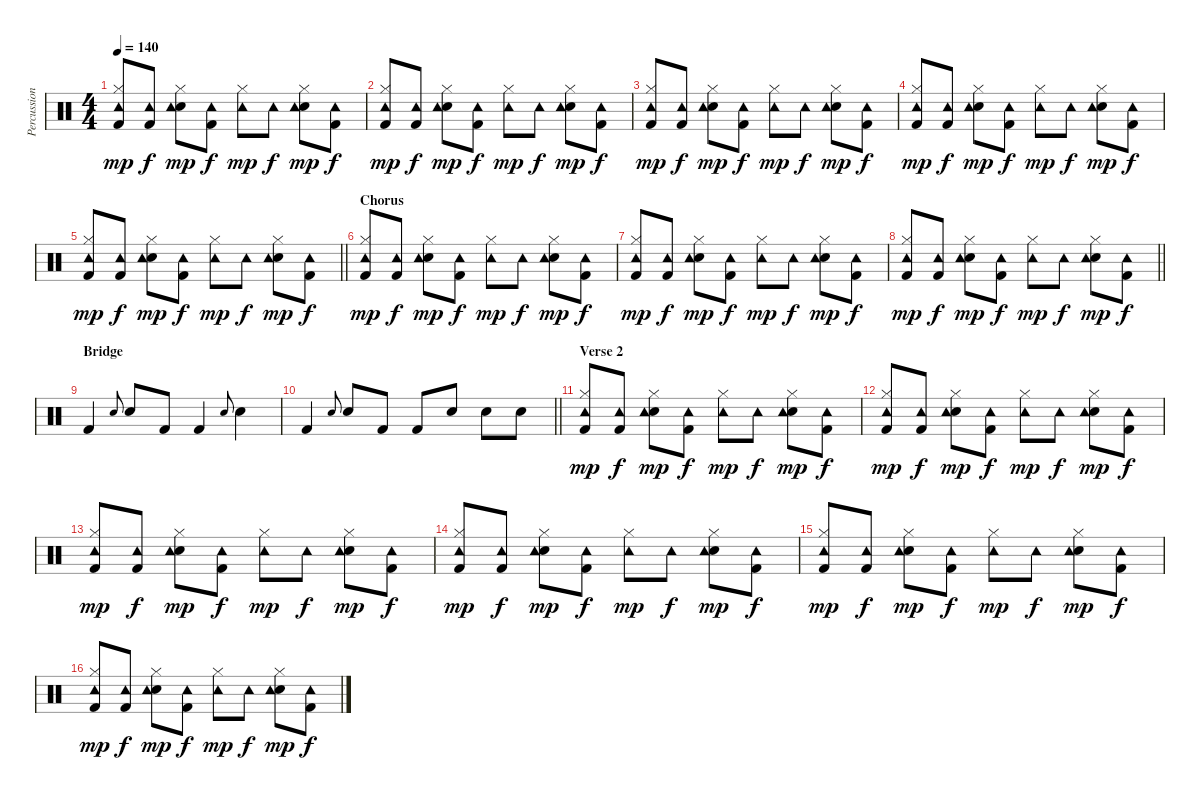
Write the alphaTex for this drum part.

\track ("Percussion" "Percussion") {instrument percussion}
\staff {score}
\articulation defaults
\ts (4 4)
\tempo 140
\clef neutral
\ks c
("Kick (hit) 2" "Hi-Hat (closed)" "Tambourine (hit)").8{dy mp} ("Kick (hit) 2" "Tambourine (hit)").8{dy f} ("Snare (hit) 2" "Hi-Hat (closed)" "Tambourine (hit)").8{dy mp} ("Kick (hit) 2" "Tambourine (hit)").8{dy f} ("Hi-Hat (closed)" "Tambourine (hit)").8{dy mp} "Tambourine (hit)".8{dy f} ("Snare (hit) 2" "Hi-Hat (closed)" "Tambourine (hit)").8{dy mp} ("Kick (hit) 2" "Tambourine (hit)").8{dy f} |
("Kick (hit) 2" "Hi-Hat (closed)" "Tambourine (hit)").8{dy mp} ("Kick (hit) 2" "Tambourine (hit)").8{dy f} ("Snare (hit) 2" "Hi-Hat (closed)" "Tambourine (hit)").8{dy mp} ("Kick (hit) 2" "Tambourine (hit)").8{dy f} ("Hi-Hat (closed)" "Tambourine (hit)").8{dy mp} "Tambourine (hit)".8{dy f} ("Snare (hit) 2" "Hi-Hat (closed)" "Tambourine (hit)").8{dy mp} ("Kick (hit) 2" "Tambourine (hit)").8{dy f} |
("Kick (hit) 2" "Hi-Hat (closed)" "Tambourine (hit)").8{dy mp} ("Kick (hit) 2" "Tambourine (hit)").8{dy f} ("Snare (hit) 2" "Hi-Hat (closed)" "Tambourine (hit)").8{dy mp} ("Kick (hit) 2" "Tambourine (hit)").8{dy f} ("Hi-Hat (closed)" "Tambourine (hit)").8{dy mp} "Tambourine (hit)".8{dy f} ("Snare (hit) 2" "Hi-Hat (closed)" "Tambourine (hit)").8{dy mp} ("Kick (hit) 2" "Tambourine (hit)").8{dy f} |
("Kick (hit) 2" "Hi-Hat (closed)" "Tambourine (hit)").8{dy mp} ("Kick (hit) 2" "Tambourine (hit)").8{dy f} ("Snare (hit) 2" "Hi-Hat (closed)" "Tambourine (hit)").8{dy mp} ("Kick (hit) 2" "Tambourine (hit)").8{dy f} ("Hi-Hat (closed)" "Tambourine (hit)").8{dy mp} "Tambourine (hit)".8{dy f} ("Snare (hit) 2" "Hi-Hat (closed)" "Tambourine (hit)").8{dy mp} ("Kick (hit) 2" "Tambourine (hit)").8{dy f} |
\barLineRight lightlight
("Kick (hit) 2" "Hi-Hat (closed)" "Tambourine (hit)").8{dy mp} ("Kick (hit) 2" "Tambourine (hit)").8{dy f} ("Snare (hit) 2" "Hi-Hat (closed)" "Tambourine (hit)").8{dy mp} ("Kick (hit) 2" "Tambourine (hit)").8{dy f} ("Hi-Hat (closed)" "Tambourine (hit)").8{dy mp} "Tambourine (hit)".8{dy f} ("Snare (hit) 2" "Hi-Hat (closed)" "Tambourine (hit)").8{dy mp} ("Kick (hit) 2" "Tambourine (hit)").8{dy f} |
\section ("" "Chorus")
("Kick (hit) 2" "Hi-Hat (closed)" "Tambourine (hit)").8{dy mp} ("Kick (hit) 2" "Tambourine (hit)").8{dy f} ("Snare (hit) 2" "Hi-Hat (closed)" "Tambourine (hit)").8{dy mp} ("Kick (hit) 2" "Tambourine (hit)").8{dy f} ("Hi-Hat (closed)" "Tambourine (hit)").8{dy mp} "Tambourine (hit)".8{dy f} ("Snare (hit) 2" "Hi-Hat (closed)" "Tambourine (hit)").8{dy mp} ("Kick (hit) 2" "Tambourine (hit)").8{dy f} |
("Kick (hit) 2" "Hi-Hat (closed)" "Tambourine (hit)").8{dy mp} ("Kick (hit) 2" "Tambourine (hit)").8{dy f} ("Snare (hit) 2" "Hi-Hat (closed)" "Tambourine (hit)").8{dy mp} ("Kick (hit) 2" "Tambourine (hit)").8{dy f} ("Hi-Hat (closed)" "Tambourine (hit)").8{dy mp} "Tambourine (hit)".8{dy f} ("Snare (hit) 2" "Hi-Hat (closed)" "Tambourine (hit)").8{dy mp} ("Kick (hit) 2" "Tambourine (hit)").8{dy f} |
\barLineRight lightlight
("Kick (hit) 2" "Hi-Hat (closed)" "Tambourine (hit)").8{dy mp} ("Kick (hit) 2" "Tambourine (hit)").8{dy f} ("Snare (hit) 2" "Hi-Hat (closed)" "Tambourine (hit)").8{dy mp} ("Kick (hit) 2" "Tambourine (hit)").8{dy f} ("Hi-Hat (closed)" "Tambourine (hit)").8{dy mp} "Tambourine (hit)".8{dy f} ("Snare (hit) 2" "Hi-Hat (closed)" "Tambourine (hit)").8{dy mp} ("Kick (hit) 2" "Tambourine (hit)").8{dy f} |
\section ("" "Bridge")
"Kick (hit) 2".4 "Snare (hit) 2".8{gr onbeat} "Snare (hit) 2".8 "Kick (hit) 2".8 "Kick (hit) 2".4 "Snare (hit) 2".8{gr onbeat} "Snare (hit) 2".4 |
\barLineRight lightlight "Kick (hit) 2".4 "Snare (hit) 2".8{gr onbeat} "Snare (hit) 2".8 "Kick (hit) 2".8 "Kick (hit) 2".8 "Snare (hit) 2".8 "Snare (hit) 2".8 "Snare (hit) 2".8
|
\section ("" "Verse 2")
("Kick (hit) 2" "Hi-Hat (closed)" "Tambourine (hit)").8{dy mp} ("Kick (hit) 2" "Tambourine (hit)").8{dy f} ("Snare (hit) 2" "Hi-Hat (closed)" "Tambourine (hit)").8{dy mp} ("Kick (hit) 2" "Tambourine (hit)").8{dy f} ("Hi-Hat (closed)" "Tambourine (hit)").8{dy mp} "Tambourine (hit)".8{dy f} ("Snare (hit) 2" "Hi-Hat (closed)" "Tambourine (hit)").8{dy mp} ("Kick (hit) 2" "Tambourine (hit)").8{dy f} |
("Kick (hit) 2" "Hi-Hat (closed)" "Tambourine (hit)").8{dy mp} ("Kick (hit) 2" "Tambourine (hit)").8{dy f} ("Snare (hit) 2" "Hi-Hat (closed)" "Tambourine (hit)").8{dy mp} ("Kick (hit) 2" "Tambourine (hit)").8{dy f} ("Hi-Hat (closed)" "Tambourine (hit)").8{dy mp} "Tambourine (hit)".8{dy f} ("Snare (hit) 2" "Hi-Hat (closed)" "Tambourine (hit)").8{dy mp} ("Kick (hit) 2" "Tambourine (hit)").8{dy f} |
("Kick (hit) 2" "Hi-Hat (closed)" "Tambourine (hit)").8{dy mp} ("Kick (hit) 2" "Tambourine (hit)").8{dy f} ("Snare (hit) 2" "Hi-Hat (closed)" "Tambourine (hit)").8{dy mp} ("Kick (hit) 2" "Tambourine (hit)").8{dy f} ("Hi-Hat (closed)" "Tambourine (hit)").8{dy mp} "Tambourine (hit)".8{dy f} ("Snare (hit) 2" "Hi-Hat (closed)" "Tambourine (hit)").8{dy mp} ("Kick (hit) 2" "Tambourine (hit)").8{dy f} |
("Kick (hit) 2" "Hi-Hat (closed)" "Tambourine (hit)").8{dy mp} ("Kick (hit) 2" "Tambourine (hit)").8{dy f} ("Snare (hit) 2" "Hi-Hat (closed)" "Tambourine (hit)").8{dy mp} ("Kick (hit) 2" "Tambourine (hit)").8{dy f} ("Hi-Hat (closed)" "Tambourine (hit)").8{dy mp} "Tambourine (hit)".8{dy f} ("Snare (hit) 2" "Hi-Hat (closed)" "Tambourine (hit)").8{dy mp} ("Kick (hit) 2" "Tambourine (hit)").8{dy f} |
("Kick (hit) 2" "Hi-Hat (closed)" "Tambourine (hit)").8{dy mp} ("Kick (hit) 2" "Tambourine (hit)").8{dy f} ("Snare (hit) 2" "Hi-Hat (closed)" "Tambourine (hit)").8{dy mp} ("Kick (hit) 2" "Tambourine (hit)").8{dy f} ("Hi-Hat (closed)" "Tambourine (hit)").8{dy mp} "Tambourine (hit)".8{dy f} ("Snare (hit) 2" "Hi-Hat (closed)" "Tambourine (hit)").8{dy mp} ("Kick (hit) 2" "Tambourine (hit)").8{dy f} |
("Kick (hit) 2" "Hi-Hat (closed)" "Tambourine (hit)").8{dy mp} ("Kick (hit) 2" "Tambourine (hit)").8{dy f} ("Snare (hit) 2" "Hi-Hat (closed)" "Tambourine (hit)").8{dy mp} ("Kick (hit) 2" "Tambourine (hit)").8{dy f} ("Hi-Hat (closed)" "Tambourine (hit)").8{dy mp} "Tambourine (hit)".8{dy f} ("Snare (hit) 2" "Hi-Hat (closed)" "Tambourine (hit)").8{dy mp} ("Kick (hit) 2" "Tambourine (hit)").8{dy f}
